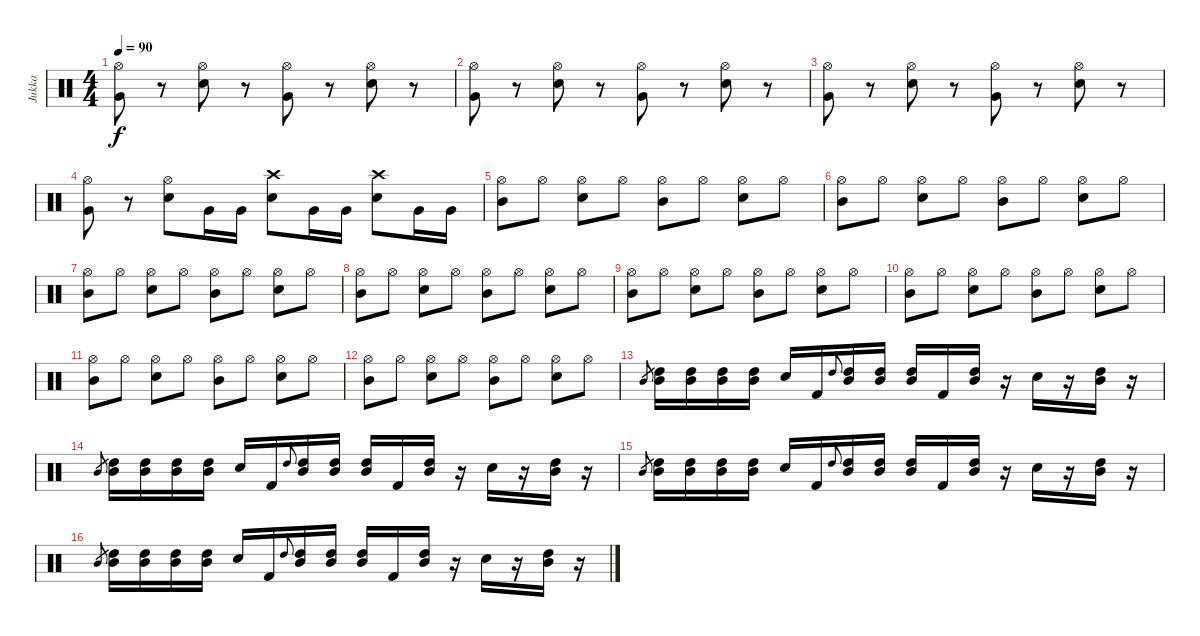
\track ("Jukka" "Jukka") {instrument percussion}
\staff {score}
\articulation defaults
\ts (4 4)
\tempo 90
\clef neutral
\ks c
("Hi-Hat (open)" "Very Low Tom (hit)").8{dy f} r.8 ("Snare (hit) 2" "Hi-Hat (open)").8 r.8 ("Very Low Tom (hit)" "Hi-Hat (open)").8 r.8 ("Snare (hit) 2" "Hi-Hat (open)").8 r.8 |
("Hi-Hat (open)" "Very Low Tom (hit)").8 r.8 ("Snare (hit) 2" "Hi-Hat (open)").8 r.8 ("Very Low Tom (hit)" "Hi-Hat (open)").8 r.8 ("Snare (hit) 2" "Hi-Hat (open)").8 r.8 |
("Hi-Hat (open)" "Very Low Tom (hit)").8 r.8 ("Snare (hit) 2" "Hi-Hat (open)").8 r.8 ("Very Low Tom (hit)" "Hi-Hat (open)").8 r.8 ("Snare (hit) 2" "Hi-Hat (open)").8 r.8 |
("Hi-Hat (open)" "Very Low Tom (hit)").8 r.8 ("Snare (hit) 2" "Hi-Hat (open)").8 "Very Low Tom (hit)".16 "Very Low Tom (hit)".16 ("Snare (hit) 2" "Crash high (hit)").8 "Very Low Tom (hit)".16 "Very Low Tom (hit)".16 ("Snare (hit) 2" "Crash high (hit)").8 "Very Low Tom (hit)".16 "Very Low Tom (hit)".16 |
("Mid Tom (hit)" "Hi-Hat (open)").8 "Hi-Hat (open)".8 ("Hi-Hat (open)" "Snare (hit) 2").8 "Hi-Hat (open)".8 ("Hi-Hat (open)" "Mid Tom (hit)").8 "Hi-Hat (open)".8 ("Hi-Hat (open)" "Snare (hit) 2").8 "Hi-Hat (open)".8 |
("Mid Tom (hit)" "Hi-Hat (open)").8 "Hi-Hat (open)".8 ("Hi-Hat (open)" "Snare (hit) 2").8 "Hi-Hat (open)".8 ("Hi-Hat (open)" "Mid Tom (hit)").8 "Hi-Hat (open)".8 ("Hi-Hat (open)" "Snare (hit) 2").8 "Hi-Hat (open)".8 |
("Mid Tom (hit)" "Hi-Hat (open)").8 "Hi-Hat (open)".8 ("Hi-Hat (open)" "Snare (hit) 2").8 "Hi-Hat (open)".8 ("Hi-Hat (open)" "Mid Tom (hit)").8 "Hi-Hat (open)".8 ("Hi-Hat (open)" "Snare (hit) 2").8 "Hi-Hat (open)".8 |
("Mid Tom (hit)" "Hi-Hat (open)").8 "Hi-Hat (open)".8 ("Hi-Hat (open)" "Snare (hit) 2").8 "Hi-Hat (open)".8 ("Hi-Hat (open)" "Mid Tom (hit)").8 "Hi-Hat (open)".8 ("Hi-Hat (open)" "Snare (hit) 2").8 "Hi-Hat (open)".8 |
("Mid Tom (hit)" "Hi-Hat (open)").8 "Hi-Hat (open)".8 ("Hi-Hat (open)" "Snare (hit) 2").8 "Hi-Hat (open)".8 ("Hi-Hat (open)" "Mid Tom (hit)").8 "Hi-Hat (open)".8 ("Hi-Hat (open)" "Snare (hit) 2").8 "Hi-Hat (open)".8 |
("Mid Tom (hit)" "Hi-Hat (open)").8 "Hi-Hat (open)".8 ("Hi-Hat (open)" "Snare (hit) 2").8 "Hi-Hat (open)".8 ("Hi-Hat (open)" "Mid Tom (hit)").8 "Hi-Hat (open)".8 ("Hi-Hat (open)" "Snare (hit) 2").8 "Hi-Hat (open)".8 |
("Mid Tom (hit)" "Hi-Hat (open)").8 "Hi-Hat (open)".8 ("Hi-Hat (open)" "Snare (hit) 2").8 "Hi-Hat (open)".8 ("Hi-Hat (open)" "Mid Tom (hit)").8 "Hi-Hat (open)".8 ("Hi-Hat (open)" "Snare (hit) 2").8 "Hi-Hat (open)".8 |
("Mid Tom (hit)" "Hi-Hat (open)").8 "Hi-Hat (open)".8 ("Hi-Hat (open)" "Snare (hit) 2").8 "Hi-Hat (open)".8 ("Hi-Hat (open)" "Mid Tom (hit)").8 "Hi-Hat (open)".8 ("Hi-Hat (open)" "Snare (hit) 2").8 "Hi-Hat (open)".8 |
"Mid Tom (hit)".8{gr} ("High Tom (hit)" "Mid Tom (hit)").16 ("Mid Tom (hit)" "High Tom (hit)").16 ("High Tom (hit)" "Mid Tom (hit)").16 ("Mid Tom (hit)" "High Tom (hit)").16 "Snare (hit) 2".16 "Kick (hit) 2".16 "High Tom (hit)".8{gr onbeat} ("Mid Tom (hit)" "High Tom (hit)").16 ("Mid Tom (hit)" "High Tom (hit)").16 ("Mid Tom (hit)" "High Tom (hit)").16 "Kick (hit) 2".16 ("Mid Tom (hit)" "High Tom (hit)").16 r.16 "Snare (hit) 2".16 r.16 ("Mid Tom (hit)" "High Tom (hit)").16 r.16 |
"Mid Tom (hit)".8{gr} ("High Tom (hit)" "Mid Tom (hit)").16 ("Mid Tom (hit)" "High Tom (hit)").16 ("High Tom (hit)" "Mid Tom (hit)").16 ("Mid Tom (hit)" "High Tom (hit)").16 "Snare (hit) 2".16 "Kick (hit) 2".16 "High Tom (hit)".8{gr onbeat} ("Mid Tom (hit)" "High Tom (hit)").16 ("Mid Tom (hit)" "High Tom (hit)").16 ("Mid Tom (hit)" "High Tom (hit)").16 "Kick (hit) 2".16 ("Mid Tom (hit)" "High Tom (hit)").16 r.16 "Snare (hit) 2".16 r.16 ("Mid Tom (hit)" "High Tom (hit)").16 r.16 |
"Mid Tom (hit)".8{gr} ("High Tom (hit)" "Mid Tom (hit)").16 ("Mid Tom (hit)" "High Tom (hit)").16 ("High Tom (hit)" "Mid Tom (hit)").16 ("Mid Tom (hit)" "High Tom (hit)").16 "Snare (hit) 2".16 "Kick (hit) 2".16 "High Tom (hit)".8{gr onbeat} ("Mid Tom (hit)" "High Tom (hit)").16 ("Mid Tom (hit)" "High Tom (hit)").16 ("Mid Tom (hit)" "High Tom (hit)").16 "Kick (hit) 2".16 ("Mid Tom (hit)" "High Tom (hit)").16 r.16 "Snare (hit) 2".16 r.16 ("Mid Tom (hit)" "High Tom (hit)").16 r.16 |
"Mid Tom (hit)".8{gr} ("High Tom (hit)" "Mid Tom (hit)").16 ("Mid Tom (hit)" "High Tom (hit)").16 ("High Tom (hit)" "Mid Tom (hit)").16 ("Mid Tom (hit)" "High Tom (hit)").16 "Snare (hit) 2".16 "Kick (hit) 2".16 "High Tom (hit)".8{gr onbeat} ("Mid Tom (hit)" "High Tom (hit)").16 ("Mid Tom (hit)" "High Tom (hit)").16 ("Mid Tom (hit)" "High Tom (hit)").16 "Kick (hit) 2".16 ("Mid Tom (hit)" "High Tom (hit)").16 r.16 "Snare (hit) 2".16 r.16 ("Mid Tom (hit)" "High Tom (hit)").16 r.16
